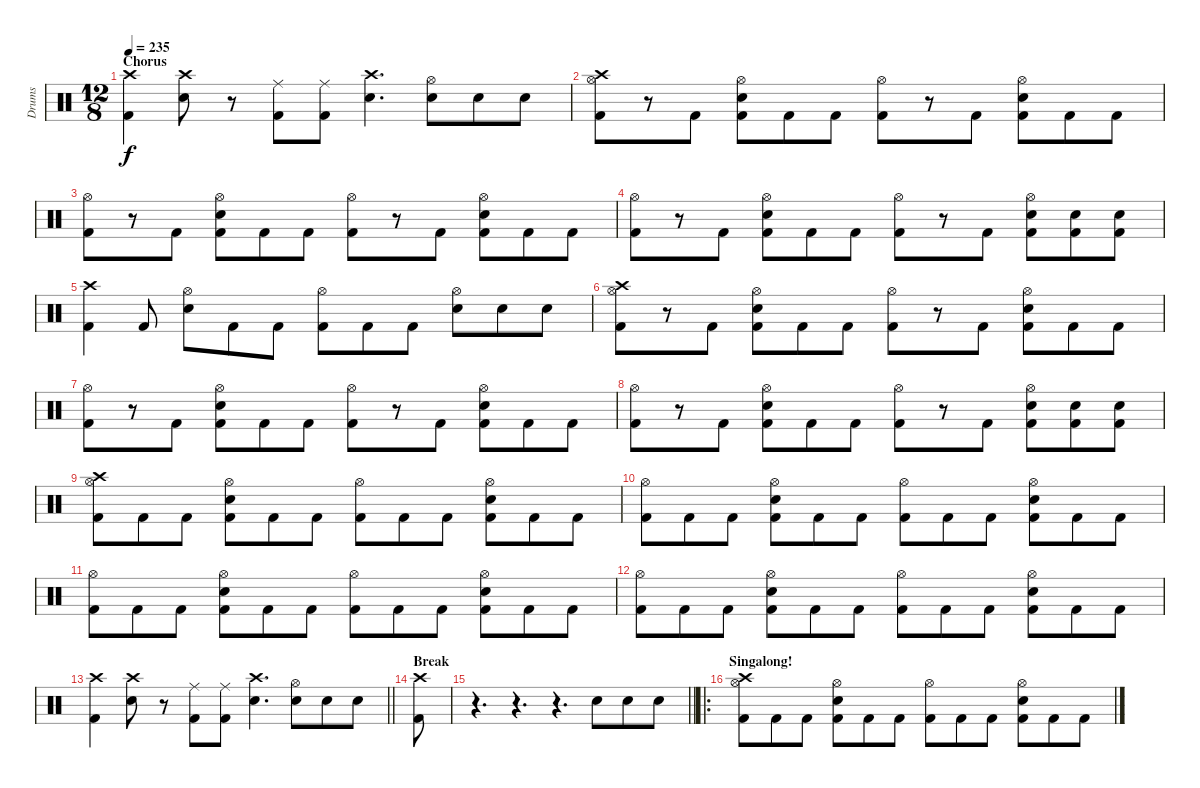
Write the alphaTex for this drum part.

\track ("Drums" "Drums") {instrument percussion}
\staff {score}
\articulation defaults
\ts (12 8)
\section ("" "Chorus")
\tempo 235
\clef neutral
\ks c
("Crash high (hit)" "Kick (hit) 2").4{dy f} ("Crash high (hit)" "Snare (hit) 2").8 r.8 ("Ride (middle)" "Kick (hit) 2").8 ("Ride (middle)" "Kick (hit) 2").8 ("Crash high (hit)" "Snare (hit) 2").4{d} ("Hi-Hat (open)" "Snare (hit) 2").8 "Snare (hit) 2".8 "Snare (hit) 2".8 |
("Crash high (hit)" "Hi-Hat (open)" "Kick (hit) 2").8 r.8 "Kick (hit) 2".8 ("Hi-Hat (open)" "Snare (hit) 2" "Kick (hit) 2").8 "Kick (hit) 2".8 "Kick (hit) 2".8 ("Hi-Hat (open)" "Kick (hit) 2").8 r.8 "Kick (hit) 2".8 ("Hi-Hat (open)" "Snare (hit) 2" "Kick (hit) 2").8 "Kick (hit) 2".8 "Kick (hit) 2".8 |
("Hi-Hat (open)" "Kick (hit) 2").8 r.8 "Kick (hit) 2".8 ("Hi-Hat (open)" "Snare (hit) 2" "Kick (hit) 2").8 "Kick (hit) 2".8 "Kick (hit) 2".8 ("Hi-Hat (open)" "Kick (hit) 2").8 r.8 "Kick (hit) 2".8 ("Hi-Hat (open)" "Snare (hit) 2" "Kick (hit) 2").8 "Kick (hit) 2".8 "Kick (hit) 2".8 |
("Hi-Hat (open)" "Kick (hit) 2").8 r.8 "Kick (hit) 2".8 ("Hi-Hat (open)" "Snare (hit) 2" "Kick (hit) 2").8 "Kick (hit) 2".8 "Kick (hit) 2".8 ("Hi-Hat (open)" "Kick (hit) 2").8 r.8 "Kick (hit) 2".8 ("Hi-Hat (open)" "Snare (hit) 2" "Kick (hit) 2").8 ("Snare (hit) 2" "Kick (hit) 2").8 ("Snare (hit) 2" "Kick (hit) 2").8 |
("Crash high (hit)" "Kick (hit) 2").4 "Kick (hit) 2".8 ("Hi-Hat (open)" "Snare (hit) 2").8 "Kick (hit) 2".8 "Kick (hit) 2".8 ("Hi-Hat (open)" "Kick (hit) 2").8 "Kick (hit) 2".8 "Kick (hit) 2".8 ("Hi-Hat (open)" "Snare (hit) 2").8 "Snare (hit) 2".8 "Snare (hit) 2".8 |
("Crash high (hit)" "Hi-Hat (open)" "Kick (hit) 2").8 r.8 "Kick (hit) 2".8 ("Hi-Hat (open)" "Snare (hit) 2" "Kick (hit) 2").8 "Kick (hit) 2".8 "Kick (hit) 2".8 ("Hi-Hat (open)" "Kick (hit) 2").8 r.8 "Kick (hit) 2".8 ("Hi-Hat (open)" "Snare (hit) 2" "Kick (hit) 2").8 "Kick (hit) 2".8 "Kick (hit) 2".8 |
("Hi-Hat (open)" "Kick (hit) 2").8 r.8 "Kick (hit) 2".8 ("Hi-Hat (open)" "Snare (hit) 2" "Kick (hit) 2").8 "Kick (hit) 2".8 "Kick (hit) 2".8 ("Hi-Hat (open)" "Kick (hit) 2").8 r.8 "Kick (hit) 2".8 ("Hi-Hat (open)" "Snare (hit) 2" "Kick (hit) 2").8 "Kick (hit) 2".8 "Kick (hit) 2".8 |
("Hi-Hat (open)" "Kick (hit) 2").8 r.8 "Kick (hit) 2".8 ("Hi-Hat (open)" "Snare (hit) 2" "Kick (hit) 2").8 "Kick (hit) 2".8 "Kick (hit) 2".8 ("Hi-Hat (open)" "Kick (hit) 2").8 r.8 "Kick (hit) 2".8 ("Hi-Hat (open)" "Snare (hit) 2" "Kick (hit) 2").8 ("Snare (hit) 2" "Kick (hit) 2").8 ("Snare (hit) 2" "Kick (hit) 2").8 |
("Crash high (hit)" "Hi-Hat (open)" "Kick (hit) 2").8 "Kick (hit) 2".8 "Kick (hit) 2".8 ("Hi-Hat (open)" "Snare (hit) 2" "Kick (hit) 2").8 "Kick (hit) 2".8 "Kick (hit) 2".8 ("Hi-Hat (open)" "Kick (hit) 2").8 "Kick (hit) 2".8 "Kick (hit) 2".8 ("Hi-Hat (open)" "Snare (hit) 2" "Kick (hit) 2").8 "Kick (hit) 2".8 "Kick (hit) 2".8 |
("Hi-Hat (open)" "Kick (hit) 2").8 "Kick (hit) 2".8 "Kick (hit) 2".8 ("Hi-Hat (open)" "Snare (hit) 2" "Kick (hit) 2").8 "Kick (hit) 2".8 "Kick (hit) 2".8 ("Hi-Hat (open)" "Kick (hit) 2").8 "Kick (hit) 2".8 "Kick (hit) 2".8 ("Hi-Hat (open)" "Snare (hit) 2" "Kick (hit) 2").8 "Kick (hit) 2".8 "Kick (hit) 2".8 |
("Hi-Hat (open)" "Kick (hit) 2").8 "Kick (hit) 2".8 "Kick (hit) 2".8 ("Hi-Hat (open)" "Snare (hit) 2" "Kick (hit) 2").8 "Kick (hit) 2".8 "Kick (hit) 2".8 ("Hi-Hat (open)" "Kick (hit) 2").8 "Kick (hit) 2".8 "Kick (hit) 2".8 ("Hi-Hat (open)" "Snare (hit) 2" "Kick (hit) 2").8 "Kick (hit) 2".8 "Kick (hit) 2".8 |
("Hi-Hat (open)" "Kick (hit) 2").8 "Kick (hit) 2".8 "Kick (hit) 2".8 ("Hi-Hat (open)" "Snare (hit) 2" "Kick (hit) 2").8 "Kick (hit) 2".8 "Kick (hit) 2".8 ("Hi-Hat (open)" "Kick (hit) 2").8 "Kick (hit) 2".8 "Kick (hit) 2".8 ("Hi-Hat (open)" "Snare (hit) 2" "Kick (hit) 2").8 "Kick (hit) 2".8 "Kick (hit) 2".8 |
\barLineRight lightlight
("Crash high (hit)" "Kick (hit) 2").4 ("Crash high (hit)" "Snare (hit) 2").8 r.8 ("Ride (middle)" "Kick (hit) 2").8 ("Ride (middle)" "Kick (hit) 2").8 ("Crash high (hit)" "Snare (hit) 2").4{d} ("Hi-Hat (open)" "Snare (hit) 2").8 "Snare (hit) 2".8 "Snare (hit) 2".8 |
\section ("" "Break")
("Crash high (hit)" "Kick (hit) 2").8 |
\barLineRight lightlight
r.4{d} r.4{d} r.4{d} "Snare (hit) 2".8 "Snare (hit) 2".8 "Snare (hit) 2".8 |
\ro
\section ("" "Singalong!")
("Crash high (hit)" "Hi-Hat (open)" "Kick (hit) 2").8 "Kick (hit) 2".8 "Kick (hit) 2".8 ("Hi-Hat (open)" "Snare (hit) 2" "Kick (hit) 2").8 "Kick (hit) 2".8 "Kick (hit) 2".8 ("Hi-Hat (open)" "Kick (hit) 2").8 "Kick (hit) 2".8 "Kick (hit) 2".8 ("Hi-Hat (open)" "Snare (hit) 2" "Kick (hit) 2").8 "Kick (hit) 2".8 "Kick (hit) 2".8
